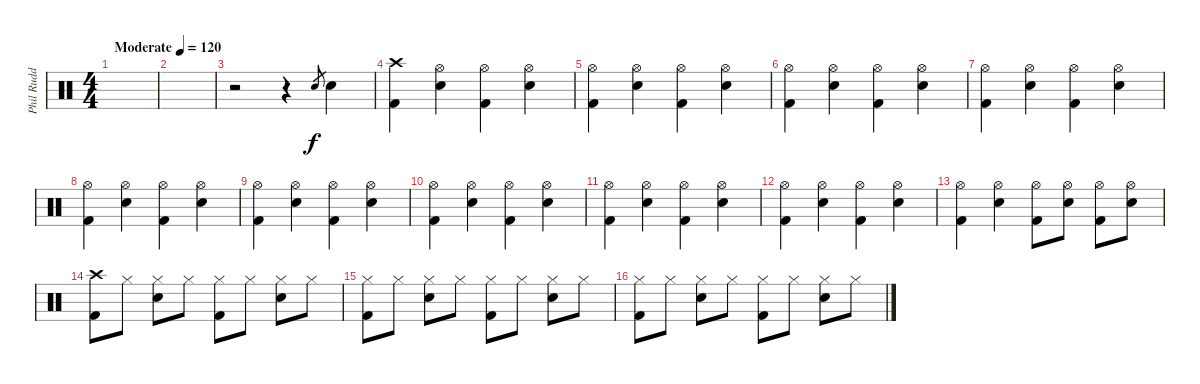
\track ("Phil Rudd (Drum)" "Phil Rudd ") {instrument percussion}
\staff {score}
\articulation defaults
\ts (4 4)
\tempo (120 "Moderate")
\clef neutral
\ks c
|
|
r.2 r.4 "Snare (hit) 2".8{gr} "Snare (hit) 2".4 |
("Crash high (hit)" "Kick (hit) 2").4 ("Hi-Hat (open)" "Snare (hit) 2").4 ("Hi-Hat (open)" "Kick (hit) 2").4 ("Hi-Hat (open)" "Snare (hit) 2").4 |
("Hi-Hat (open)" "Kick (hit) 2").4 ("Hi-Hat (open)" "Snare (hit) 2").4 ("Hi-Hat (open)" "Kick (hit) 2").4 ("Hi-Hat (open)" "Snare (hit) 2").4 |
("Hi-Hat (open)" "Kick (hit) 2").4 ("Hi-Hat (open)" "Snare (hit) 2").4 ("Hi-Hat (open)" "Kick (hit) 2").4 ("Hi-Hat (open)" "Snare (hit) 2").4 |
("Hi-Hat (open)" "Kick (hit) 2").4 ("Hi-Hat (open)" "Snare (hit) 2").4 ("Hi-Hat (open)" "Kick (hit) 2").4 ("Hi-Hat (open)" "Snare (hit) 2").4 |
("Hi-Hat (open)" "Kick (hit) 2").4 ("Hi-Hat (open)" "Snare (hit) 2").4 ("Hi-Hat (open)" "Kick (hit) 2").4 ("Hi-Hat (open)" "Snare (hit) 2").4 |
("Hi-Hat (open)" "Kick (hit) 2").4 ("Hi-Hat (open)" "Snare (hit) 2").4 ("Hi-Hat (open)" "Kick (hit) 2").4 ("Hi-Hat (open)" "Snare (hit) 2").4 |
("Hi-Hat (open)" "Kick (hit) 2").4 ("Hi-Hat (open)" "Snare (hit) 2").4 ("Hi-Hat (open)" "Kick (hit) 2").4 ("Hi-Hat (open)" "Snare (hit) 2").4 |
("Hi-Hat (open)" "Kick (hit) 2").4 ("Hi-Hat (open)" "Snare (hit) 2").4 ("Hi-Hat (open)" "Kick (hit) 2").4 ("Hi-Hat (open)" "Snare (hit) 2").4 |
("Hi-Hat (open)" "Kick (hit) 2").4 ("Hi-Hat (open)" "Snare (hit) 2").4 ("Hi-Hat (open)" "Kick (hit) 2").4 ("Hi-Hat (open)" "Snare (hit) 2").4 |
("Hi-Hat (open)" "Kick (hit) 2").4 ("Hi-Hat (open)" "Snare (hit) 2").4 ("Hi-Hat (open)" "Kick (hit) 2").8 ("Hi-Hat (open)" "Snare (hit) 2").8 ("Hi-Hat (open)" "Kick (hit) 2").8 ("Hi-Hat (open)" "Snare (hit) 2").8 |
("Crash high (hit)" "Kick (hit) 2").8 "Hi-Hat (closed)".8 ("Hi-Hat (closed)" "Snare (hit) 2").8 "Hi-Hat (closed)".8 ("Hi-Hat (closed)" "Kick (hit) 2").8 "Hi-Hat (closed)".8 ("Hi-Hat (closed)" "Snare (hit) 2").8 "Hi-Hat (closed)".8 |
("Hi-Hat (closed)" "Kick (hit) 2").8 "Hi-Hat (closed)".8 ("Hi-Hat (closed)" "Snare (hit) 2").8 "Hi-Hat (closed)".8 ("Hi-Hat (closed)" "Kick (hit) 2").8 "Hi-Hat (closed)".8 ("Hi-Hat (closed)" "Snare (hit) 2").8 "Hi-Hat (closed)".8 |
("Hi-Hat (closed)" "Kick (hit) 2").8 "Hi-Hat (closed)".8 ("Hi-Hat (closed)" "Snare (hit) 2").8 "Hi-Hat (closed)".8 ("Hi-Hat (closed)" "Kick (hit) 2").8 "Hi-Hat (closed)".8 ("Hi-Hat (closed)" "Snare (hit) 2").8 "Hi-Hat (closed)".8
